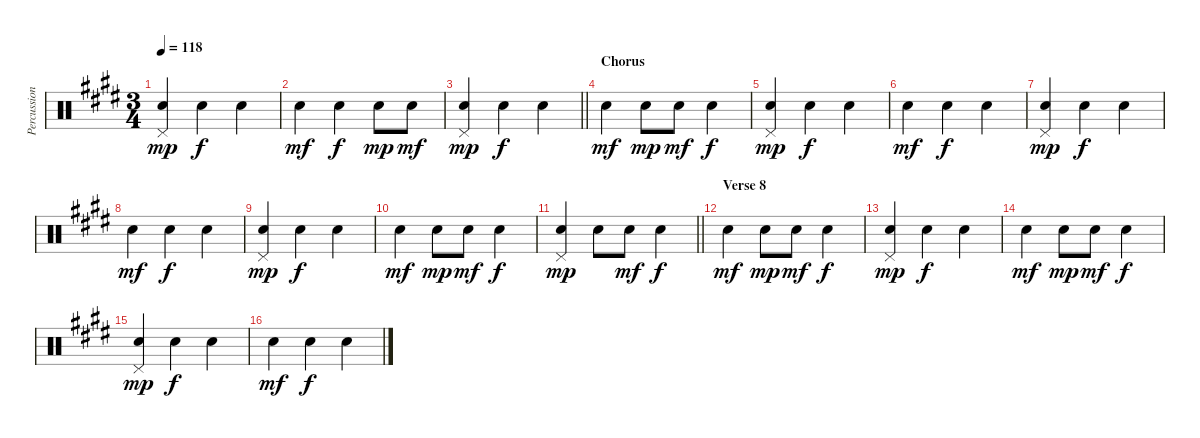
\track ("Percussion" "Percussion") {instrument percussion}
\staff {score}
\articulation defaults
\ts (3 4)
\tempo 118
\clef neutral
\ks e
("Hand Clap (hit)" "Pedal Hi-Hat (hit)").4{dy mp} "Snare (hit) 2".4{dy f} "Snare (hit) 2".4 |
"Snare (hit) 2".4{dy mf} "Snare (hit) 2".4{dy f} "Snare (hit) 2".8{dy mp} "Snare (hit) 2".8{dy mf} |
\barLineRight lightlight
("Hand Clap (hit)" "Pedal Hi-Hat (hit)").4{dy mp} "Snare (hit) 2".4{dy f} "Snare (hit) 2".4 |
\section ("" "Chorus")
"Snare (hit) 2".4{dy mf} "Snare (hit) 2".8{dy mp} "Snare (hit) 2".8{dy mf} "Snare (hit) 2".4{dy f} |
("Hand Clap (hit)" "Pedal Hi-Hat (hit)").4{dy mp} "Snare (hit) 2".4{dy f} "Snare (hit) 2".4 |
"Snare (hit) 2".4{dy mf} "Snare (hit) 2".4{dy f} "Snare (hit) 2".4 |
("Hand Clap (hit)" "Pedal Hi-Hat (hit)").4{dy mp} "Snare (hit) 2".4{dy f} "Snare (hit) 2".4 |
"Snare (hit) 2".4{dy mf} "Snare (hit) 2".4{dy f} "Snare (hit) 2".4 |
("Hand Clap (hit)" "Pedal Hi-Hat (hit)").4{dy mp} "Snare (hit) 2".4{dy f} "Snare (hit) 2".4 |
"Snare (hit) 2".4{dy mf} "Snare (hit) 2".8{dy mp} "Snare (hit) 2".8{dy mf} "Snare (hit) 2".4{dy f} |
\barLineRight lightlight
("Hand Clap (hit)" "Pedal Hi-Hat (hit)").4{dy mp} "Snare (hit) 2".8 "Snare (hit) 2".8{dy mf} "Snare (hit) 2".4{dy f} |
\section ("" "Verse 8")
"Snare (hit) 2".4{dy mf} "Snare (hit) 2".8{dy mp} "Snare (hit) 2".8{dy mf} "Snare (hit) 2".4{dy f} |
("Hand Clap (hit)" "Pedal Hi-Hat (hit)").4{dy mp} "Snare (hit) 2".4{dy f} "Snare (hit) 2".4 |
"Snare (hit) 2".4{dy mf} "Snare (hit) 2".8{dy mp} "Snare (hit) 2".8{dy mf} "Snare (hit) 2".4{dy f} |
("Hand Clap (hit)" "Pedal Hi-Hat (hit)").4{dy mp} "Snare (hit) 2".4{dy f} "Snare (hit) 2".4 |
"Snare (hit) 2".4{dy mf} "Snare (hit) 2".4{dy f} "Snare (hit) 2".4
